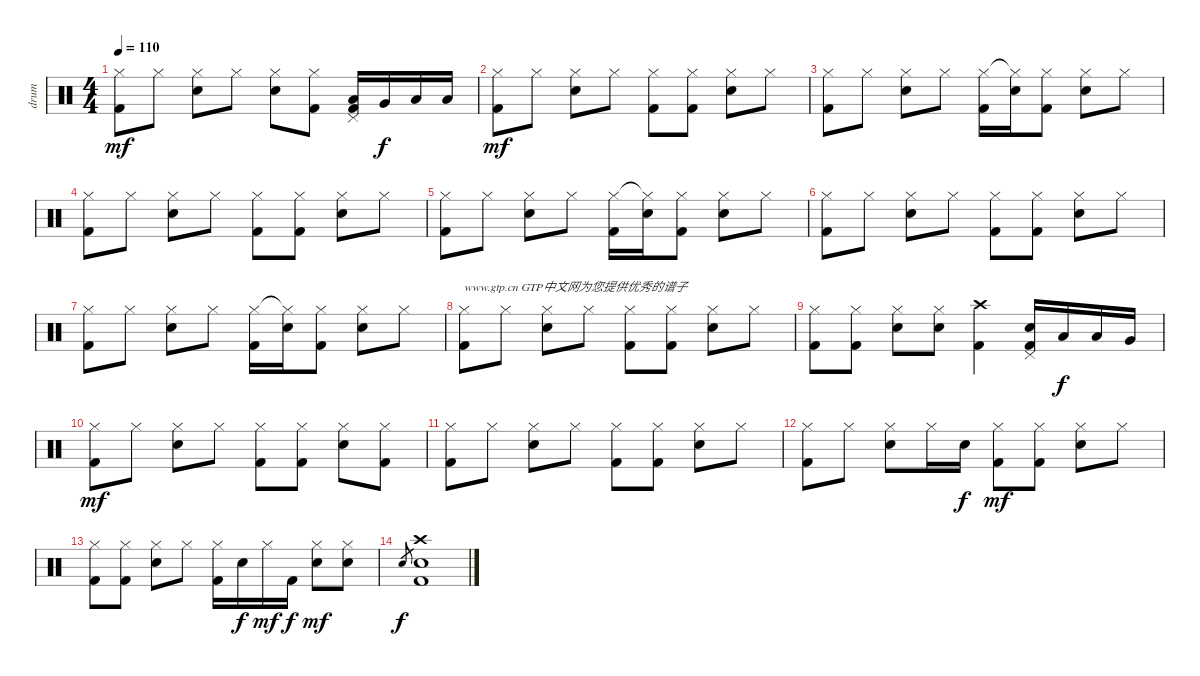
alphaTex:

\track ("drum" "drum") {instrument percussion}
\staff
\articulation defaults
\ts (4 4)
\tempo 110
\clef neutral
\ks c
("Hi-Hat (closed)" "Kick (hit) 2").8{dy mf} "Hi-Hat (closed)".8 ("Hi-Hat (closed)" "Electric Snare (hit)").8 "Hi-Hat (closed)".8 ("Hi-Hat (closed)" "Electric Snare (hit)").8 ("Hi-Hat (closed)" "Kick (hit) 2").8 ("Pedal Hi-Hat (hit)" "Low Tom (hit)" "Kick (hit) 2").16 "Very Low Tom (hit)".16{dy f} "Low Tom (hit)".16 "Low Floor Tom (hit)".16 |
("Hi-Hat (closed)" "Kick (hit) 2").8{dy mf} "Hi-Hat (closed)".8 ("Hi-Hat (closed)" "Electric Snare (hit)").8 "Hi-Hat (closed)".8 ("Hi-Hat (closed)" "Kick (hit) 2").8 ("Hi-Hat (closed)" "Kick (hit) 2").8 ("Hi-Hat (closed)" "Electric Snare (hit)").8 "Hi-Hat (closed)".8 |
("Hi-Hat (closed)" "Kick (hit) 2").8 "Hi-Hat (closed)".8 ("Hi-Hat (closed)" "Electric Snare (hit)").8 "Hi-Hat (closed)".8 ("Hi-Hat (closed)" "Kick (hit) 2").16 ("Hi-Hat (closed)"{t} "Electric Snare (hit)").16 ("Hi-Hat (closed)" "Kick (hit) 2").8 ("Hi-Hat (closed)" "Electric Snare (hit)").8 "Hi-Hat (closed)".8 |
("Hi-Hat (closed)" "Kick (hit) 2").8 "Hi-Hat (closed)".8 ("Hi-Hat (closed)" "Electric Snare (hit)").8 "Hi-Hat (closed)".8 ("Hi-Hat (closed)" "Kick (hit) 2").8 ("Hi-Hat (closed)" "Kick (hit) 2").8 ("Hi-Hat (closed)" "Electric Snare (hit)").8 "Hi-Hat (closed)".8 |
("Hi-Hat (closed)" "Kick (hit) 2").8 "Hi-Hat (closed)".8 ("Hi-Hat (closed)" "Electric Snare (hit)").8 "Hi-Hat (closed)".8 ("Hi-Hat (closed)" "Kick (hit) 2").16 ("Hi-Hat (closed)"{t} "Electric Snare (hit)").16 ("Hi-Hat (closed)" "Kick (hit) 2").8 ("Hi-Hat (closed)" "Electric Snare (hit)").8 "Hi-Hat (closed)".8 |
("Hi-Hat (closed)" "Kick (hit) 2").8 "Hi-Hat (closed)".8 ("Hi-Hat (closed)" "Electric Snare (hit)").8 "Hi-Hat (closed)".8 ("Hi-Hat (closed)" "Kick (hit) 2").8 ("Hi-Hat (closed)" "Kick (hit) 2").8 ("Hi-Hat (closed)" "Electric Snare (hit)").8 "Hi-Hat (closed)".8 |
("Hi-Hat (closed)" "Kick (hit) 2").8 "Hi-Hat (closed)".8 ("Hi-Hat (closed)" "Electric Snare (hit)").8 "Hi-Hat (closed)".8 ("Hi-Hat (closed)" "Kick (hit) 2").16 ("Hi-Hat (closed)"{t} "Electric Snare (hit)").16 ("Hi-Hat (closed)" "Kick (hit) 2").8 ("Hi-Hat (closed)" "Electric Snare (hit)").8 "Hi-Hat (closed)".8 |
("Hi-Hat (closed)" "Kick (hit) 2").8{txt "www.gtp.cn GTP中文网为您提供优秀的谱子"} "Hi-Hat (closed)".8 ("Hi-Hat (closed)" "Electric Snare (hit)").8 "Hi-Hat (closed)".8 ("Hi-Hat (closed)" "Kick (hit) 2").8 ("Hi-Hat (closed)" "Kick (hit) 2").8 ("Hi-Hat (closed)" "Electric Snare (hit)").8 "Hi-Hat (closed)".8 |
("Hi-Hat (closed)" "Kick (hit) 2").8 ("Hi-Hat (closed)" "Kick (hit) 2").8 ("Hi-Hat (closed)" "Electric Snare (hit)").8 ("Hi-Hat (closed)" "Electric Snare (hit)").8 ("Crash high (hit)" "Kick (hit) 2").4 ("Pedal Hi-Hat (hit)" "Electric Snare (hit)" "Kick (hit) 2").16 "Low Floor Tom (hit)".16{dy f} "Low Tom (hit)".16 "Very Low Tom (hit)".16 |
("Hi-Hat (closed)" "Kick (hit) 2").8{dy mf} "Hi-Hat (closed)".8 ("Hi-Hat (closed)" "Electric Snare (hit)").8 "Hi-Hat (closed)".8 ("Hi-Hat (closed)" "Kick (hit) 2").8 ("Hi-Hat (closed)" "Kick (hit) 2").8 ("Hi-Hat (closed)" "Electric Snare (hit)").8 ("Hi-Hat (closed)" "Kick (hit) 2").8 |
("Hi-Hat (closed)" "Kick (hit) 2").8 "Hi-Hat (closed)".8 ("Hi-Hat (closed)" "Electric Snare (hit)").8 "Hi-Hat (closed)".8 ("Hi-Hat (closed)" "Kick (hit) 2").8 ("Hi-Hat (closed)" "Kick (hit) 2").8 ("Hi-Hat (closed)" "Electric Snare (hit)").8 "Hi-Hat (closed)".8 |
("Hi-Hat (closed)" "Kick (hit) 2").8 "Hi-Hat (closed)".8 ("Hi-Hat (closed)" "Electric Snare (hit)").8 "Hi-Hat (closed)".16 "Electric Snare (hit)".16{dy f} ("Hi-Hat (closed)" "Kick (hit) 2").8{dy mf} ("Hi-Hat (closed)" "Kick (hit) 2").8 ("Hi-Hat (closed)" "Electric Snare (hit)").8 "Hi-Hat (closed)".8 |
("Hi-Hat (closed)" "Kick (hit) 2").8 ("Hi-Hat (closed)" "Kick (hit) 2").8 ("Hi-Hat (closed)" "Electric Snare (hit)").8 "Hi-Hat (closed)".8 ("Hi-Hat (closed)" "Kick (hit) 2").16 "Electric Snare (hit)".16{dy f} "Hi-Hat (closed)".16{dy mf} "Kick (hit) 2".16{dy f} ("Hi-Hat (closed)" "Electric Snare (hit)").8{dy mf} ("Hi-Hat (closed)" "Electric Snare (hit)").8 |
"Electric Snare (hit)".8{gr dy f} ("Crash high (hit)" "Electric Snare (hit)" "Kick (hit) 2").1
